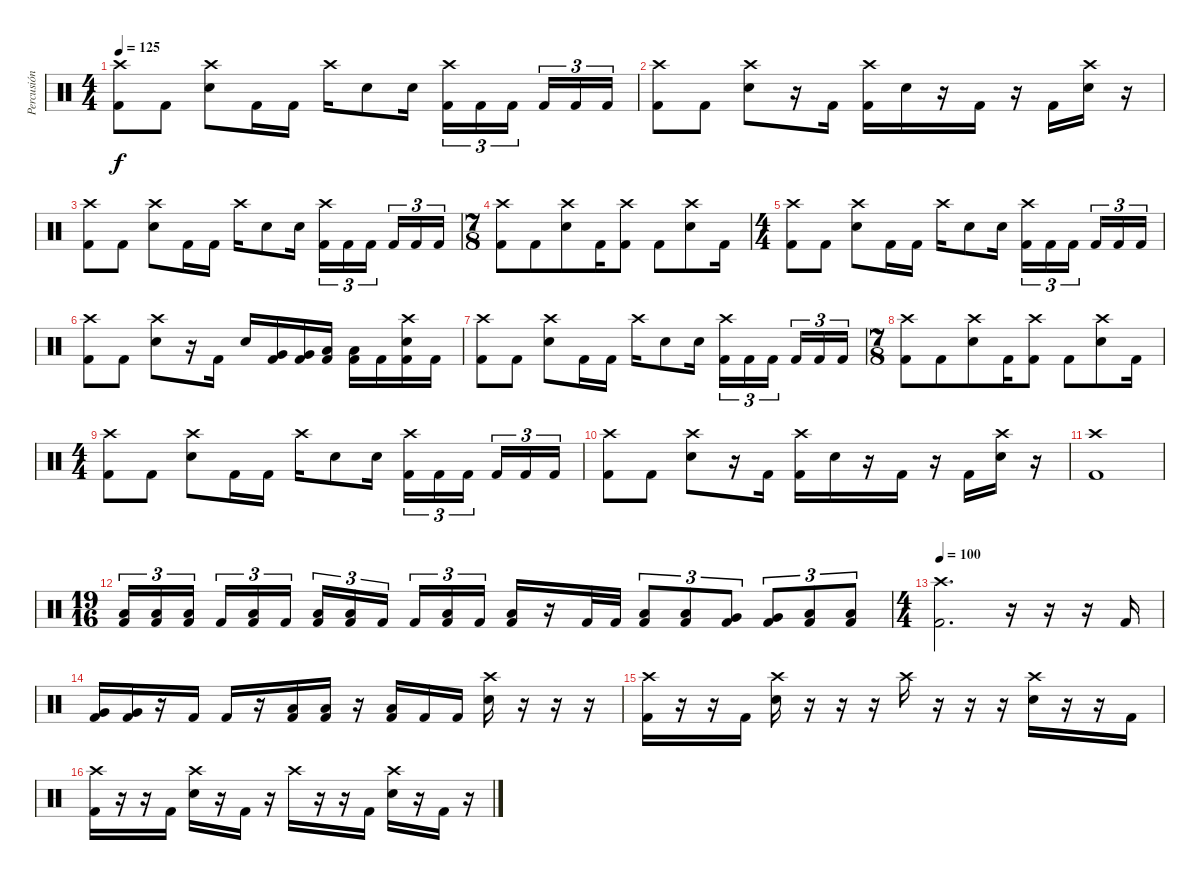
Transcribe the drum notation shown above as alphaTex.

\track ("Percusión" "Percusión") {instrument percussion}
\staff {score}
\articulation defaults
\ts (4 4)
\tempo 125
\clef neutral
\ks c
("Crash high (hit)" "Kick (hit) 2").8{dy f} "Kick (hit) 2".8 ("Crash high (hit)" "Electric Snare (hit)").8 "Kick (hit) 2".16 "Kick (hit) 2".16 "Crash high (hit)".16 "Electric Snare (hit)".8 "Electric Snare (hit)".16 ("Crash high (hit)" "Kick (hit) 2").16{tu (3 2)} "Kick (hit) 2".16{tu (3 2)} "Kick (hit) 2".16{tu (3 2) beam splitsecondary} "Kick (hit) 2".16{tu (3 2)} "Kick (hit) 2".16{tu (3 2)} "Kick (hit) 2".16{tu (3 2)} |
("Crash high (hit)" "Kick (hit) 2").8 "Kick (hit) 2".8 ("Crash high (hit)" "Electric Snare (hit)").8 r.16 "Kick (hit) 2".16 ("Crash high (hit)" "Kick (hit) 2").16 "Electric Snare (hit)".16 r.16 "Kick (hit) 2".16 r.16 "Kick (hit) 2".16 ("Crash high (hit)" "Electric Snare (hit)").16 r.16 |
("Crash high (hit)" "Kick (hit) 2").8 "Kick (hit) 2".8 ("Crash high (hit)" "Electric Snare (hit)").8 "Kick (hit) 2".16 "Kick (hit) 2".16 "Crash high (hit)".16 "Electric Snare (hit)".8 "Electric Snare (hit)".16 ("Crash high (hit)" "Kick (hit) 2").16{tu (3 2)} "Kick (hit) 2".16{tu (3 2)} "Kick (hit) 2".16{tu (3 2) beam splitsecondary} "Kick (hit) 2".16{tu (3 2)} "Kick (hit) 2".16{tu (3 2)} "Kick (hit) 2".16{tu (3 2)} |
\ts (7 8)
("Crash high (hit)" "Kick (hit) 2").8 "Kick (hit) 2".8 ("Crash high (hit)" "Electric Snare (hit)").8 "Kick (hit) 2".16 ("Crash high (hit)" "Kick (hit) 2").8 "Kick (hit) 2".8 ("Crash high (hit)" "Electric Snare (hit)").8 "Kick (hit) 2".16 |
\ts (4 4)
("Crash high (hit)" "Kick (hit) 2").8 "Kick (hit) 2".8 ("Crash high (hit)" "Electric Snare (hit)").8 "Kick (hit) 2".16 "Kick (hit) 2".16 "Crash high (hit)".16 "Electric Snare (hit)".8 "Electric Snare (hit)".16 ("Crash high (hit)" "Kick (hit) 2").16{tu (3 2)} "Kick (hit) 2".16{tu (3 2)} "Kick (hit) 2".16{tu (3 2) beam splitsecondary} "Kick (hit) 2".16{tu (3 2)} "Kick (hit) 2".16{tu (3 2)} "Kick (hit) 2".16{tu (3 2)} |
("Crash high (hit)" "Kick (hit) 2").8 "Kick (hit) 2".8 ("Crash high (hit)" "Electric Snare (hit)").8 r.16 "Kick (hit) 2".16 "Electric Snare (hit)".16 ("Very Low Tom (hit)" "Kick (hit) 2").16 ("Very Low Tom (hit)" "Kick (hit) 2").16 ("Low Floor Tom (hit)" "Kick (hit) 2").16 ("Low Floor Tom (hit)" "Kick (hit) 2").16 "Kick (hit) 2".16 ("Crash high (hit)" "Electric Snare (hit)" "Kick (hit) 2").16 "Kick (hit) 2".16 |
("Crash high (hit)" "Kick (hit) 2").8 "Kick (hit) 2".8 ("Crash high (hit)" "Electric Snare (hit)").8 "Kick (hit) 2".16 "Kick (hit) 2".16 "Crash high (hit)".16 "Electric Snare (hit)".8 "Electric Snare (hit)".16 ("Crash high (hit)" "Kick (hit) 2").16{tu (3 2)} "Kick (hit) 2".16{tu (3 2)} "Kick (hit) 2".16{tu (3 2) beam splitsecondary} "Kick (hit) 2".16{tu (3 2)} "Kick (hit) 2".16{tu (3 2)} "Kick (hit) 2".16{tu (3 2)} |
\ts (7 8)
("Crash high (hit)" "Kick (hit) 2").8 "Kick (hit) 2".8 ("Crash high (hit)" "Electric Snare (hit)").8 "Kick (hit) 2".16 ("Crash high (hit)" "Kick (hit) 2").8 "Kick (hit) 2".8 ("Crash high (hit)" "Electric Snare (hit)").8 "Kick (hit) 2".16 |
\ts (4 4)
("Crash high (hit)" "Kick (hit) 2").8 "Kick (hit) 2".8 ("Crash high (hit)" "Electric Snare (hit)").8 "Kick (hit) 2".16 "Kick (hit) 2".16 "Crash high (hit)".16 "Electric Snare (hit)".8 "Electric Snare (hit)".16 ("Crash high (hit)" "Kick (hit) 2").16{tu (3 2)} "Kick (hit) 2".16{tu (3 2)} "Kick (hit) 2".16{tu (3 2) beam splitsecondary} "Kick (hit) 2".16{tu (3 2)} "Kick (hit) 2".16{tu (3 2)} "Kick (hit) 2".16{tu (3 2)} |
("Crash high (hit)" "Kick (hit) 2").8 "Kick (hit) 2".8 ("Crash high (hit)" "Electric Snare (hit)").8 r.16 "Kick (hit) 2".16 ("Crash high (hit)" "Kick (hit) 2").16 "Electric Snare (hit)".16 r.16 "Kick (hit) 2".16 r.16 "Kick (hit) 2".16 ("Crash high (hit)" "Electric Snare (hit)").16 r.16 |
("Crash high (hit)" "Kick (hit) 2").1 |
\ts (19 16)
("Low Tom (hit)" "Kick (hit) 2").16{tu (3 2)} ("Low Floor Tom (hit)" "Kick (hit) 2").16{tu (3 2)} ("Low Floor Tom (hit)" "Kick (hit) 2").16{tu (3 2)} "Kick (hit) 2".16{tu (3 2)} ("Low Tom (hit)" "Kick (hit) 2").16{tu (3 2)} "Kick (hit) 2".16{tu (3 2)} ("Low Tom (hit)" "Kick (hit) 2").16{tu (3 2)} ("Low Floor Tom (hit)" "Kick (hit) 2").16{tu (3 2)} "Kick (hit) 2".16{tu (3 2)} "Kick (hit) 2".16{tu (3 2)} ("Low Tom (hit)" "Kick (hit) 2").16{tu (3 2)} "Kick (hit) 2".16{tu (3 2)} ("Low Tom (hit)" "Kick (hit) 2").16 r.16 "Kick (hit) 2".32 "Kick (hit) 2".32 ("Low Tom (hit)" "Kick (hit) 2").8{tu (3 2)} ("Low Tom (hit)" "Kick (hit) 2").8{tu (3 2)} ("Very Low Tom (hit)" "Kick (hit) 2").8{tu (3 2)} ("Very Low Tom (hit)" "Kick (hit) 2").8{tu (3 2)} ("Low Floor Tom (hit)" "Kick (hit) 2").8{tu (3 2)} ("Low Floor Tom (hit)" "Kick (hit) 2").8{tu (3 2)} |
\ts (4 4)
\tempo 100
("Crash high (hit)" "Kick (hit) 2").2{d} r.16 r.16 r.16 "Kick (hit) 2".16 |
("Very Low Tom (hit)" "Kick (hit) 2").16 ("Very Low Tom (hit)" "Kick (hit) 2").16 r.16 "Kick (hit) 2".16 "Kick (hit) 2".16 r.16 ("Low Floor Tom (hit)" "Kick (hit) 2").16 ("Low Floor Tom (hit)" "Kick (hit) 2").16 r.16 ("Low Tom (hit)" "Kick (hit) 2").16 "Kick (hit) 2".16 "Kick (hit) 2".16 ("Crash high (hit)" "Electric Snare (hit)").16 r.16 r.16 r.16 |
("Crash high (hit)" "Kick (hit) 2").16 r.16 r.16 "Kick (hit) 2".16 ("Crash high (hit)" "Electric Snare (hit)").16 r.16 r.16 r.16 "Crash high (hit)".16 r.16 r.16 r.16 ("Crash high (hit)" "Electric Snare (hit)").16 r.16 r.16 "Kick (hit) 2".16 |
("Crash high (hit)" "Kick (hit) 2").16 r.16 r.16 "Kick (hit) 2".16 ("Crash high (hit)" "Electric Snare (hit)").16 r.16 "Kick (hit) 2".16 r.16 "Crash high (hit)".16 r.16 r.16 "Kick (hit) 2".16 ("Crash high (hit)" "Electric Snare (hit)").16 r.16 "Kick (hit) 2".16 r.16
